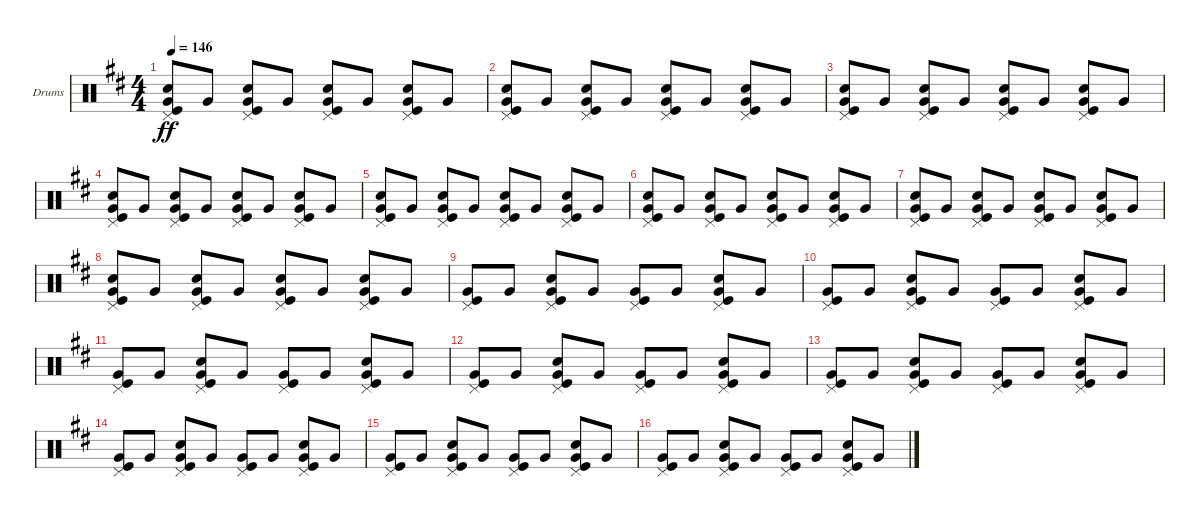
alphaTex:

\bracketExtendMode groupsimilarinstruments
\firstSystemTrackNameOrientation horizontal
\otherSystemsTrackNameOrientation horizontal
\track ("Fabrizio Moretti" "Drums") {instrument percussion}
\staff {score}
\articulation defaults
\ts (4 4)
\tempo 146
\clef neutral
\ks d
("Very Low Tom (hit)" "Pedal Hi-Hat (hit)" "Snare (hit) 2" "Kick (hit)").8{dy ff} "Very Low Tom (hit)".8 ("Very Low Tom (hit)" "Pedal Hi-Hat (hit)" "Snare (hit) 2" "Kick (hit)").8 "Very Low Tom (hit)".8 ("Very Low Tom (hit)" "Pedal Hi-Hat (hit)" "Snare (hit) 2" "Kick (hit)").8 "Very Low Tom (hit)".8 ("Very Low Tom (hit)" "Pedal Hi-Hat (hit)" "Snare (hit) 2" "Kick (hit)").8 "Very Low Tom (hit)".8 |
("Very Low Tom (hit)" "Pedal Hi-Hat (hit)" "Snare (hit) 2" "Kick (hit)").8 "Very Low Tom (hit)".8 ("Very Low Tom (hit)" "Pedal Hi-Hat (hit)" "Snare (hit) 2" "Kick (hit)").8 "Very Low Tom (hit)".8 ("Very Low Tom (hit)" "Pedal Hi-Hat (hit)" "Snare (hit) 2" "Kick (hit)").8 "Very Low Tom (hit)".8 ("Very Low Tom (hit)" "Pedal Hi-Hat (hit)" "Snare (hit) 2" "Kick (hit)").8 "Very Low Tom (hit)".8 |
("Very Low Tom (hit)" "Pedal Hi-Hat (hit)" "Snare (hit) 2" "Kick (hit)").8 "Very Low Tom (hit)".8 ("Very Low Tom (hit)" "Pedal Hi-Hat (hit)" "Snare (hit) 2" "Kick (hit)").8 "Very Low Tom (hit)".8 ("Very Low Tom (hit)" "Pedal Hi-Hat (hit)" "Snare (hit) 2" "Kick (hit)").8 "Very Low Tom (hit)".8 ("Very Low Tom (hit)" "Pedal Hi-Hat (hit)" "Snare (hit) 2" "Kick (hit)").8 "Very Low Tom (hit)".8 |
("Very Low Tom (hit)" "Pedal Hi-Hat (hit)" "Snare (hit) 2" "Kick (hit)").8 "Very Low Tom (hit)".8 ("Very Low Tom (hit)" "Pedal Hi-Hat (hit)" "Snare (hit) 2" "Kick (hit)").8 "Very Low Tom (hit)".8 ("Very Low Tom (hit)" "Pedal Hi-Hat (hit)" "Snare (hit) 2" "Kick (hit)").8 "Very Low Tom (hit)".8 ("Very Low Tom (hit)" "Pedal Hi-Hat (hit)" "Snare (hit) 2" "Kick (hit)").8 "Very Low Tom (hit)".8 |
("Very Low Tom (hit)" "Pedal Hi-Hat (hit)" "Snare (hit) 2" "Kick (hit)").8 "Very Low Tom (hit)".8 ("Very Low Tom (hit)" "Pedal Hi-Hat (hit)" "Snare (hit) 2" "Kick (hit)").8 "Very Low Tom (hit)".8 ("Very Low Tom (hit)" "Pedal Hi-Hat (hit)" "Snare (hit) 2" "Kick (hit)").8 "Very Low Tom (hit)".8 ("Very Low Tom (hit)" "Pedal Hi-Hat (hit)" "Snare (hit) 2" "Kick (hit)").8 "Very Low Tom (hit)".8 |
("Very Low Tom (hit)" "Pedal Hi-Hat (hit)" "Snare (hit) 2" "Kick (hit)").8 "Very Low Tom (hit)".8 ("Very Low Tom (hit)" "Pedal Hi-Hat (hit)" "Snare (hit) 2" "Kick (hit)").8 "Very Low Tom (hit)".8 ("Very Low Tom (hit)" "Pedal Hi-Hat (hit)" "Snare (hit) 2" "Kick (hit)").8 "Very Low Tom (hit)".8 ("Very Low Tom (hit)" "Pedal Hi-Hat (hit)" "Snare (hit) 2" "Kick (hit)").8 "Very Low Tom (hit)".8 |
("Very Low Tom (hit)" "Pedal Hi-Hat (hit)" "Snare (hit) 2" "Kick (hit)").8 "Very Low Tom (hit)".8 ("Very Low Tom (hit)" "Pedal Hi-Hat (hit)" "Snare (hit) 2" "Kick (hit)").8 "Very Low Tom (hit)".8 ("Very Low Tom (hit)" "Pedal Hi-Hat (hit)" "Snare (hit) 2" "Kick (hit)").8 "Very Low Tom (hit)".8 ("Very Low Tom (hit)" "Pedal Hi-Hat (hit)" "Snare (hit) 2" "Kick (hit)").8 "Very Low Tom (hit)".8 |
("Very Low Tom (hit)" "Pedal Hi-Hat (hit)" "Snare (hit) 2" "Kick (hit)").8 "Very Low Tom (hit)".8 ("Very Low Tom (hit)" "Pedal Hi-Hat (hit)" "Snare (hit) 2" "Kick (hit)").8 "Very Low Tom (hit)".8 ("Very Low Tom (hit)" "Pedal Hi-Hat (hit)" "Snare (hit) 2" "Kick (hit)").8 "Very Low Tom (hit)".8 ("Very Low Tom (hit)" "Pedal Hi-Hat (hit)" "Snare (hit) 2" "Kick (hit)").8 "Very Low Tom (hit)".8 |
("Very Low Tom (hit)" "Pedal Hi-Hat (hit)" "Kick (hit)").8 "Very Low Tom (hit)".8 ("Very Low Tom (hit)" "Pedal Hi-Hat (hit)" "Snare (hit) 2" "Kick (hit)").8 "Very Low Tom (hit)".8 ("Very Low Tom (hit)" "Pedal Hi-Hat (hit)" "Kick (hit)").8 "Very Low Tom (hit)".8 ("Very Low Tom (hit)" "Pedal Hi-Hat (hit)" "Snare (hit) 2" "Kick (hit)").8 "Very Low Tom (hit)".8 |
("Very Low Tom (hit)" "Pedal Hi-Hat (hit)" "Kick (hit)").8 "Very Low Tom (hit)".8 ("Very Low Tom (hit)" "Pedal Hi-Hat (hit)" "Snare (hit) 2" "Kick (hit)").8 "Very Low Tom (hit)".8 ("Very Low Tom (hit)" "Pedal Hi-Hat (hit)" "Kick (hit)").8 "Very Low Tom (hit)".8 ("Very Low Tom (hit)" "Pedal Hi-Hat (hit)" "Snare (hit) 2" "Kick (hit)").8 "Very Low Tom (hit)".8 |
("Very Low Tom (hit)" "Pedal Hi-Hat (hit)" "Kick (hit)").8 "Very Low Tom (hit)".8 ("Very Low Tom (hit)" "Pedal Hi-Hat (hit)" "Snare (hit) 2" "Kick (hit)").8 "Very Low Tom (hit)".8 ("Very Low Tom (hit)" "Pedal Hi-Hat (hit)" "Kick (hit)").8 "Very Low Tom (hit)".8 ("Very Low Tom (hit)" "Pedal Hi-Hat (hit)" "Snare (hit) 2" "Kick (hit)").8 "Very Low Tom (hit)".8 |
("Very Low Tom (hit)" "Pedal Hi-Hat (hit)" "Kick (hit)").8 "Very Low Tom (hit)".8 ("Very Low Tom (hit)" "Pedal Hi-Hat (hit)" "Snare (hit) 2" "Kick (hit)").8 "Very Low Tom (hit)".8 ("Very Low Tom (hit)" "Pedal Hi-Hat (hit)" "Kick (hit)").8 "Very Low Tom (hit)".8 ("Very Low Tom (hit)" "Pedal Hi-Hat (hit)" "Snare (hit) 2" "Kick (hit)").8 "Very Low Tom (hit)".8 |
("Very Low Tom (hit)" "Pedal Hi-Hat (hit)" "Kick (hit)").8 "Very Low Tom (hit)".8 ("Very Low Tom (hit)" "Pedal Hi-Hat (hit)" "Snare (hit) 2" "Kick (hit)").8 "Very Low Tom (hit)".8 ("Very Low Tom (hit)" "Pedal Hi-Hat (hit)" "Kick (hit)").8 "Very Low Tom (hit)".8 ("Very Low Tom (hit)" "Pedal Hi-Hat (hit)" "Snare (hit) 2" "Kick (hit)").8 "Very Low Tom (hit)".8 |
("Very Low Tom (hit)" "Pedal Hi-Hat (hit)" "Kick (hit)").8 "Very Low Tom (hit)".8 ("Very Low Tom (hit)" "Pedal Hi-Hat (hit)" "Snare (hit) 2" "Kick (hit)").8 "Very Low Tom (hit)".8 ("Very Low Tom (hit)" "Pedal Hi-Hat (hit)" "Kick (hit)").8 "Very Low Tom (hit)".8 ("Very Low Tom (hit)" "Pedal Hi-Hat (hit)" "Snare (hit) 2" "Kick (hit)").8 "Very Low Tom (hit)".8 |
("Very Low Tom (hit)" "Pedal Hi-Hat (hit)" "Kick (hit)").8 "Very Low Tom (hit)".8 ("Very Low Tom (hit)" "Pedal Hi-Hat (hit)" "Snare (hit) 2" "Kick (hit)").8 "Very Low Tom (hit)".8 ("Very Low Tom (hit)" "Pedal Hi-Hat (hit)" "Kick (hit)").8 "Very Low Tom (hit)".8 ("Very Low Tom (hit)" "Pedal Hi-Hat (hit)" "Snare (hit) 2" "Kick (hit)").8 "Very Low Tom (hit)".8 |
("Very Low Tom (hit)" "Pedal Hi-Hat (hit)" "Kick (hit)").8 "Very Low Tom (hit)".8 ("Very Low Tom (hit)" "Pedal Hi-Hat (hit)" "Snare (hit) 2" "Kick (hit)").8 "Very Low Tom (hit)".8 ("Very Low Tom (hit)" "Pedal Hi-Hat (hit)" "Kick (hit)").8 "Very Low Tom (hit)".8 ("Very Low Tom (hit)" "Pedal Hi-Hat (hit)" "Snare (hit) 2" "Kick (hit)").8 "Very Low Tom (hit)".8
